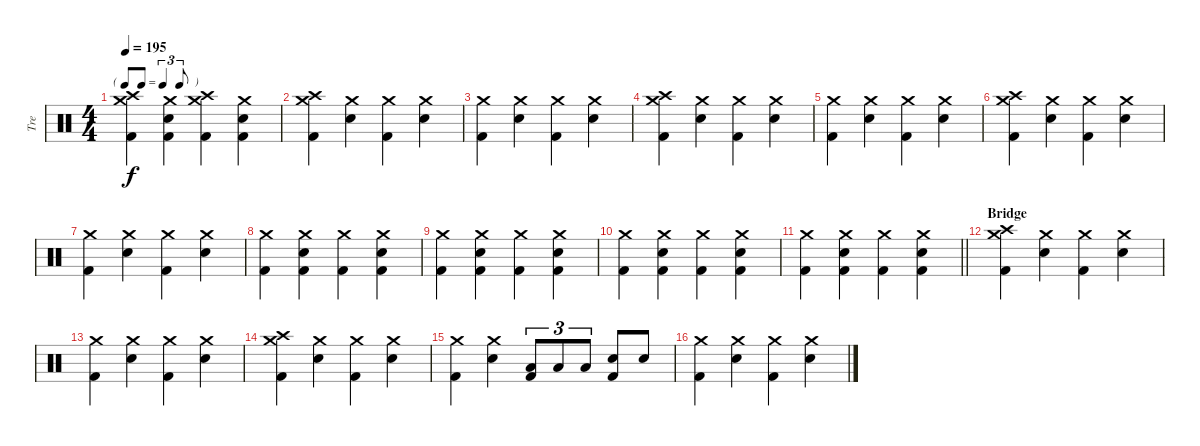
\track ("Tre" "Tre") {instrument percussion}
\staff {score}
\articulation defaults
\ts (4 4)
\tf triplet8th
\tempo 195
\clef neutral
\ks c
("Crash medium (hit)" "Crash high (hit)" "Kick (hit) 2").4{dy f} ("Crash medium (hit)" "Snare (hit) 2" "Kick (hit) 2").4 ("Crash medium (hit)" "Crash high (hit)" "Kick (hit) 2").4 ("Crash medium (hit)" "Snare (hit) 2" "Kick (hit) 2").4 |
("Crash medium (hit)" "Crash high (hit)" "Kick (hit) 2").4 ("Crash medium (hit)" "Snare (hit) 2").4 ("Crash medium (hit)" "Kick (hit) 2").4 ("Crash medium (hit)" "Snare (hit) 2").4 |
("Crash medium (hit)" "Kick (hit) 2").4 ("Crash medium (hit)" "Snare (hit) 2").4 ("Crash medium (hit)" "Kick (hit) 2").4 ("Crash medium (hit)" "Snare (hit) 2").4 |
("Crash medium (hit)" "Crash high (hit)" "Kick (hit) 2").4 ("Crash medium (hit)" "Snare (hit) 2").4 ("Crash medium (hit)" "Kick (hit) 2").4 ("Crash medium (hit)" "Snare (hit) 2").4 |
("Crash medium (hit)" "Kick (hit) 2").4 ("Crash medium (hit)" "Snare (hit) 2").4 ("Crash medium (hit)" "Kick (hit) 2").4 ("Crash medium (hit)" "Snare (hit) 2").4 |
("Crash medium (hit)" "Crash high (hit)" "Kick (hit) 2").4 ("Crash medium (hit)" "Snare (hit) 2").4 ("Crash medium (hit)" "Kick (hit) 2").4 ("Crash medium (hit)" "Snare (hit) 2").4 |
("Crash medium (hit)" "Kick (hit) 2").4 ("Crash medium (hit)" "Snare (hit) 2").4 ("Crash medium (hit)" "Kick (hit) 2").4 ("Crash medium (hit)" "Snare (hit) 2").4 |
("Crash medium (hit)" "Kick (hit) 2").4 ("Crash medium (hit)" "Snare (hit) 2" "Kick (hit) 2").4 ("Crash medium (hit)" "Kick (hit) 2").4 ("Crash medium (hit)" "Snare (hit) 2" "Kick (hit) 2").4 |
("Crash medium (hit)" "Kick (hit) 2").4 ("Crash medium (hit)" "Snare (hit) 2" "Kick (hit) 2").4 ("Crash medium (hit)" "Kick (hit) 2").4 ("Crash medium (hit)" "Snare (hit) 2" "Kick (hit) 2").4 |
("Crash medium (hit)" "Kick (hit) 2").4 ("Crash medium (hit)" "Snare (hit) 2" "Kick (hit) 2").4 ("Crash medium (hit)" "Kick (hit) 2").4 ("Crash medium (hit)" "Snare (hit) 2" "Kick (hit) 2").4 |
\barLineRight lightlight
("Crash medium (hit)" "Kick (hit) 2").4 ("Crash medium (hit)" "Snare (hit) 2" "Kick (hit) 2").4 ("Crash medium (hit)" "Kick (hit) 2").4 ("Crash medium (hit)" "Snare (hit) 2" "Kick (hit) 2").4 |
\section ("" "Bridge")
("Crash medium (hit)" "Crash high (hit)" "Kick (hit) 2").4 ("Crash medium (hit)" "Snare (hit) 2").4 ("Crash medium (hit)" "Kick (hit) 2").4 ("Crash medium (hit)" "Snare (hit) 2").4 |
("Crash medium (hit)" "Kick (hit) 2").4 ("Crash medium (hit)" "Snare (hit) 2").4 ("Crash medium (hit)" "Kick (hit) 2").4 ("Crash medium (hit)" "Snare (hit) 2").4 |
("Crash medium (hit)" "Crash high (hit)" "Kick (hit) 2").4 ("Crash medium (hit)" "Snare (hit) 2").4 ("Crash medium (hit)" "Kick (hit) 2").4 ("Crash medium (hit)" "Snare (hit) 2").4 |
("Crash medium (hit)" "Kick (hit) 2").4 ("Crash medium (hit)" "Snare (hit) 2").4 ("Low Tom (hit)" "Kick (hit) 2").8{tu (3 2)} "Low Tom (hit)".8{tu (3 2)} "Low Tom (hit)".8{tu (3 2)} ("Snare (hit) 2" "Kick (hit) 2").8 "Snare (hit) 2".8 |
("Crash medium (hit)" "Kick (hit) 2").4 ("Crash medium (hit)" "Snare (hit) 2").4 ("Crash medium (hit)" "Kick (hit) 2").4 ("Crash medium (hit)" "Snare (hit) 2").4
